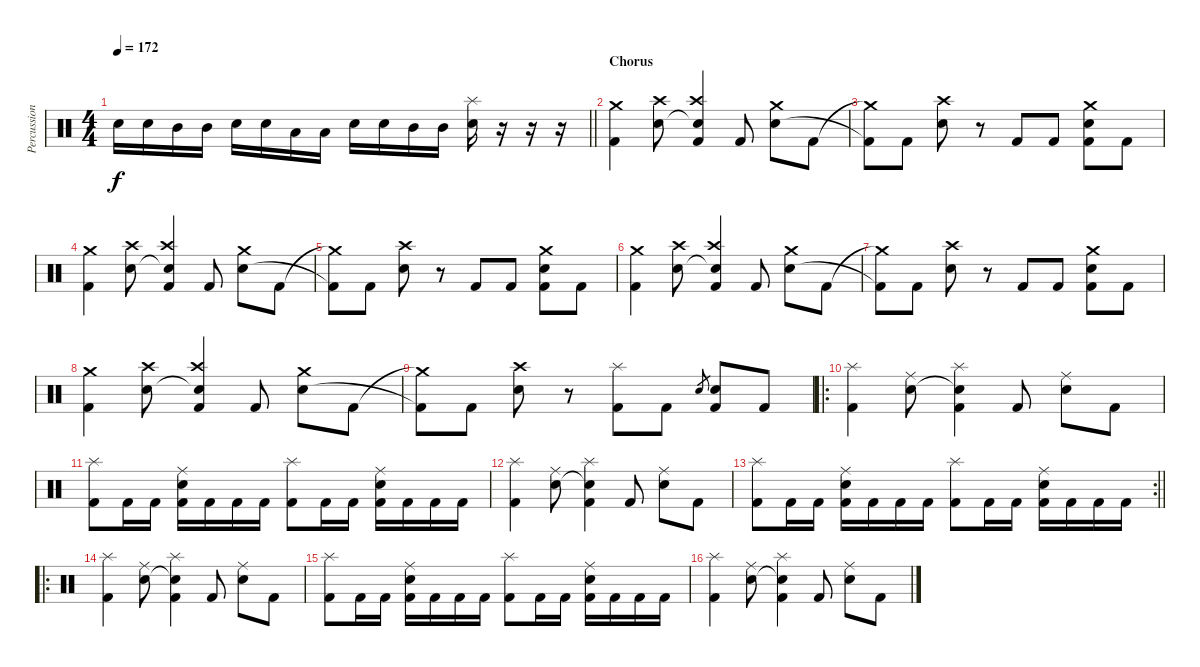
\track ("Percussion" "Percussion") {instrument percussion}
\staff {score}
\articulation defaults
\ts (4 4)
\tempo 172
\clef neutral
\barLineRight lightlight
\ks c "Snare (hit) 2".16{dy f} "Snare (hit) 2".16 "Mid Tom (hit)".16 "Mid Tom (hit)".16 "Snare (hit) 2".16 "Snare (hit) 2".16 "Low Tom (hit)".16 "Low Tom (hit)".16 "Snare (hit) 2".16 "Snare (hit) 2".16 "Mid Tom (hit)".16 "Mid Tom (hit)".16
("Splash (hit)" "Snare (hit) 2").16 r.16 r.16 r.16 |
\section ("" "Chorus")
("Crash medium (hit)" "Kick (hit) 2").4 ("Crash high (hit)" "Electric Snare (hit)").8 ("Crash high (hit)" "Electric Snare (hit)"{t} "Kick (hit) 2").4 "Kick (hit) 2".8 ("Crash medium (hit)" "Electric Snare (hit)").8 "Kick (hit) 2".8 |
("Crash medium (hit)"{t} "Kick (hit) 2"{t}).8 "Kick (hit) 2".8 ("Crash high (hit)" "Electric Snare (hit)").8 r.8 "Kick (hit) 2".8 "Kick (hit) 2".8 ("Crash medium (hit)" "Electric Snare (hit)" "Kick (hit) 2").8 "Kick (hit) 2".8 |
("Crash medium (hit)" "Kick (hit) 2").4 ("Crash high (hit)" "Electric Snare (hit)").8 ("Crash high (hit)" "Electric Snare (hit)"{t} "Kick (hit) 2").4 "Kick (hit) 2".8 ("Crash medium (hit)" "Electric Snare (hit)").8 "Kick (hit) 2".8 |
("Crash medium (hit)"{t} "Kick (hit) 2"{t}).8 "Kick (hit) 2".8 ("Crash high (hit)" "Electric Snare (hit)").8 r.8 "Kick (hit) 2".8 "Kick (hit) 2".8 ("Crash medium (hit)" "Electric Snare (hit)" "Kick (hit) 2").8 "Kick (hit) 2".8 |
("Crash medium (hit)" "Kick (hit) 2").4 ("Crash high (hit)" "Electric Snare (hit)").8 ("Crash high (hit)" "Electric Snare (hit)"{t} "Kick (hit) 2").4 "Kick (hit) 2".8 ("Crash medium (hit)" "Electric Snare (hit)").8 "Kick (hit) 2".8 |
("Crash medium (hit)"{t} "Kick (hit) 2"{t}).8 "Kick (hit) 2".8 ("Crash high (hit)" "Electric Snare (hit)").8 r.8 "Kick (hit) 2".8 "Kick (hit) 2".8 ("Crash medium (hit)" "Electric Snare (hit)" "Kick (hit) 2").8 "Kick (hit) 2".8 |
("Crash medium (hit)" "Kick (hit) 2").4 ("Crash high (hit)" "Electric Snare (hit)").8 ("Crash high (hit)" "Electric Snare (hit)"{t} "Kick (hit) 2").4 "Kick (hit) 2".8 ("Crash medium (hit)" "Electric Snare (hit)").8 "Kick (hit) 2".8 |
("Crash medium (hit)"{t} "Kick (hit) 2"{t}).8 "Kick (hit) 2".8 ("Crash high (hit)" "Electric Snare (hit)").8 r.8 ("Splash (hit)" "Kick (hit) 2").8 "Kick (hit) 2".8 "Electric Snare (hit)".8{gr} ("Electric Snare (hit)" "Kick (hit) 2").8 "Kick (hit) 2".8 |
\ro
("Splash (hit)" "Kick (hit) 2").4 ("Ride (middle)" "Electric Snare (hit)").8 ("Splash (hit)" "Electric Snare (hit)"{t} "Kick (hit) 2").4 "Kick (hit) 2".8 ("Ride (middle)" "Electric Snare (hit)").8 "Kick (hit) 2".8 |
("Splash (hit)" "Kick (hit) 2").8 "Kick (hit) 2".16 "Kick (hit) 2".16 ("Ride (middle)" "Electric Snare (hit)" "Kick (hit) 2").16 "Kick (hit) 2".16 "Kick (hit) 2".16 "Kick (hit) 2".16 ("Splash (hit)" "Kick (hit) 2").8 "Kick (hit) 2".16 "Kick (hit) 2".16 ("Ride (middle)" "Electric Snare (hit)" "Kick (hit) 2").16 "Kick (hit) 2".16 "Kick (hit) 2".16 "Kick (hit) 2".16 |
("Splash (hit)" "Kick (hit) 2").4 ("Ride (middle)" "Electric Snare (hit)").8 ("Splash (hit)" "Electric Snare (hit)"{t} "Kick (hit) 2").4 "Kick (hit) 2".8 ("Ride (middle)" "Electric Snare (hit)").8 "Kick (hit) 2".8 |
\rc 2
\barLineRight lightlight
("Splash (hit)" "Kick (hit) 2").8 "Kick (hit) 2".16 "Kick (hit) 2".16 ("Ride (middle)" "Electric Snare (hit)" "Kick (hit) 2").16 "Kick (hit) 2".16 "Kick (hit) 2".16 "Kick (hit) 2".16 ("Splash (hit)" "Kick (hit) 2").8 "Kick (hit) 2".16 "Kick (hit) 2".16 ("Ride (middle)" "Electric Snare (hit)" "Kick (hit) 2").16 "Kick (hit) 2".16 "Kick (hit) 2".16 "Kick (hit) 2".16 |
\ro
("Splash (hit)" "Kick (hit) 2").4 ("Ride (middle)" "Electric Snare (hit)").8 ("Splash (hit)" "Electric Snare (hit)"{t} "Kick (hit) 2").4 "Kick (hit) 2".8 ("Ride (middle)" "Electric Snare (hit)").8 "Kick (hit) 2".8 |
("Splash (hit)" "Kick (hit) 2").8 "Kick (hit) 2".16 "Kick (hit) 2".16 ("Ride (middle)" "Electric Snare (hit)" "Kick (hit) 2").16 "Kick (hit) 2".16 "Kick (hit) 2".16 "Kick (hit) 2".16 ("Splash (hit)" "Kick (hit) 2").8 "Kick (hit) 2".16 "Kick (hit) 2".16 ("Ride (middle)" "Electric Snare (hit)" "Kick (hit) 2").16 "Kick (hit) 2".16 "Kick (hit) 2".16 "Kick (hit) 2".16 |
("Splash (hit)" "Kick (hit) 2").4 ("Ride (middle)" "Electric Snare (hit)").8 ("Splash (hit)" "Electric Snare (hit)"{t} "Kick (hit) 2").4 "Kick (hit) 2".8 ("Ride (middle)" "Electric Snare (hit)").8 "Kick (hit) 2".8
